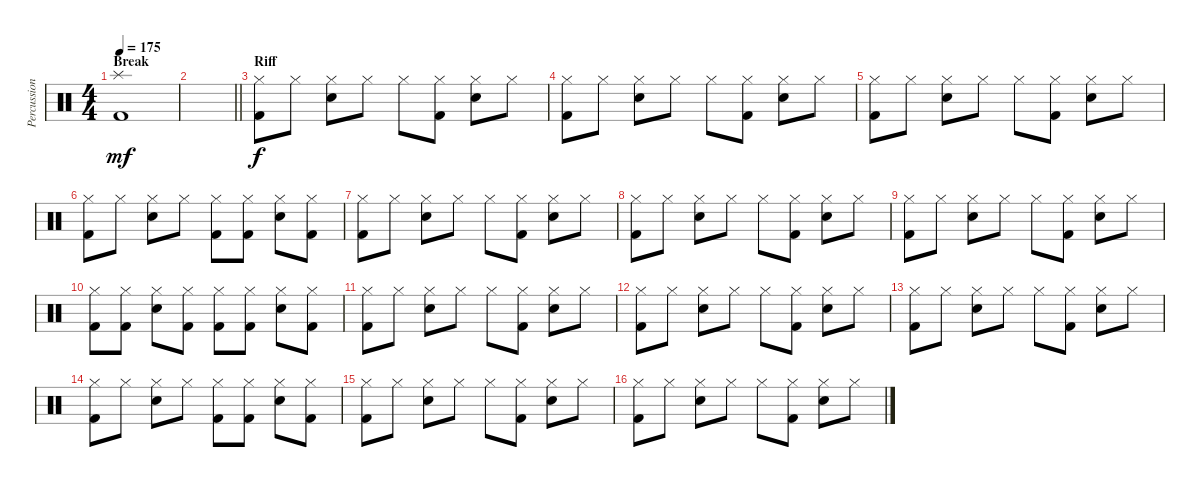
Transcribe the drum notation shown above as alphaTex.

\track ("Percussion" "Percussion") {instrument percussion}
\staff {score}
\articulation defaults
\ts (4 4)
\section ("" "Break")
\tempo 175
\clef neutral
\ks c
("Splash (hit)" "Kick (hit) 2").1{dy mf} |
\barLineRight lightlight
|
\section ("" "Riff")
("Hi-Hat (closed)" "Kick (hit) 2").8{dy f} "Hi-Hat (closed)".8 ("Hi-Hat (closed)" "Snare (hit) 2").8 "Hi-Hat (closed)".8 "Hi-Hat (closed)".8 ("Hi-Hat (closed)" "Kick (hit) 2").8 ("Hi-Hat (closed)" "Snare (hit) 2").8 "Hi-Hat (closed)".8 |
("Hi-Hat (closed)" "Kick (hit) 2").8 "Hi-Hat (closed)".8 ("Hi-Hat (closed)" "Snare (hit) 2").8 "Hi-Hat (closed)".8 "Hi-Hat (closed)".8 ("Hi-Hat (closed)" "Kick (hit) 2").8 ("Hi-Hat (closed)" "Snare (hit) 2").8 "Hi-Hat (closed)".8 |
("Hi-Hat (closed)" "Kick (hit) 2").8 "Hi-Hat (closed)".8 ("Hi-Hat (closed)" "Snare (hit) 2").8 "Hi-Hat (closed)".8 "Hi-Hat (closed)".8 ("Hi-Hat (closed)" "Kick (hit) 2").8 ("Hi-Hat (closed)" "Snare (hit) 2").8 "Hi-Hat (closed)".8 |
("Hi-Hat (closed)" "Kick (hit) 2").8 "Hi-Hat (closed)".8 ("Hi-Hat (closed)" "Snare (hit) 2").8 "Hi-Hat (closed)".8 ("Hi-Hat (closed)" "Kick (hit) 2").8 ("Hi-Hat (closed)" "Kick (hit) 2").8 ("Hi-Hat (closed)" "Snare (hit) 2").8 ("Hi-Hat (closed)" "Kick (hit) 2").8 |
("Hi-Hat (closed)" "Kick (hit) 2").8 "Hi-Hat (closed)".8 ("Hi-Hat (closed)" "Snare (hit) 2").8 "Hi-Hat (closed)".8 "Hi-Hat (closed)".8 ("Hi-Hat (closed)" "Kick (hit) 2").8 ("Hi-Hat (closed)" "Snare (hit) 2").8 "Hi-Hat (closed)".8 |
("Hi-Hat (closed)" "Kick (hit) 2").8 "Hi-Hat (closed)".8 ("Hi-Hat (closed)" "Snare (hit) 2").8 "Hi-Hat (closed)".8 "Hi-Hat (closed)".8 ("Hi-Hat (closed)" "Kick (hit) 2").8 ("Hi-Hat (closed)" "Snare (hit) 2").8 "Hi-Hat (closed)".8 |
("Hi-Hat (closed)" "Kick (hit) 2").8 "Hi-Hat (closed)".8 ("Hi-Hat (closed)" "Snare (hit) 2").8 "Hi-Hat (closed)".8 "Hi-Hat (closed)".8 ("Hi-Hat (closed)" "Kick (hit) 2").8 ("Hi-Hat (closed)" "Snare (hit) 2").8 "Hi-Hat (closed)".8 |
("Hi-Hat (closed)" "Kick (hit) 2").8 ("Hi-Hat (closed)" "Kick (hit) 2").8 ("Hi-Hat (closed)" "Snare (hit) 2").8 ("Hi-Hat (closed)" "Kick (hit) 2").8 ("Hi-Hat (closed)" "Kick (hit) 2").8 ("Hi-Hat (closed)" "Kick (hit) 2").8 ("Hi-Hat (closed)" "Snare (hit) 2").8 ("Hi-Hat (closed)" "Kick (hit) 2").8 |
("Hi-Hat (closed)" "Kick (hit) 2").8 "Hi-Hat (closed)".8 ("Hi-Hat (closed)" "Snare (hit) 2").8 "Hi-Hat (closed)".8 "Hi-Hat (closed)".8 ("Hi-Hat (closed)" "Kick (hit) 2").8 ("Hi-Hat (closed)" "Snare (hit) 2").8 "Hi-Hat (closed)".8 |
("Hi-Hat (closed)" "Kick (hit) 2").8 "Hi-Hat (closed)".8 ("Hi-Hat (closed)" "Snare (hit) 2").8 "Hi-Hat (closed)".8 "Hi-Hat (closed)".8 ("Hi-Hat (closed)" "Kick (hit) 2").8 ("Hi-Hat (closed)" "Snare (hit) 2").8 "Hi-Hat (closed)".8 |
("Hi-Hat (closed)" "Kick (hit) 2").8 "Hi-Hat (closed)".8 ("Hi-Hat (closed)" "Snare (hit) 2").8 "Hi-Hat (closed)".8 "Hi-Hat (closed)".8 ("Hi-Hat (closed)" "Kick (hit) 2").8 ("Hi-Hat (closed)" "Snare (hit) 2").8 "Hi-Hat (closed)".8 |
("Hi-Hat (closed)" "Kick (hit) 2").8 "Hi-Hat (closed)".8 ("Hi-Hat (closed)" "Snare (hit) 2").8 "Hi-Hat (closed)".8 ("Hi-Hat (closed)" "Kick (hit) 2").8 ("Hi-Hat (closed)" "Kick (hit) 2").8 ("Hi-Hat (closed)" "Snare (hit) 2").8 ("Hi-Hat (closed)" "Kick (hit) 2").8 |
("Hi-Hat (closed)" "Kick (hit) 2").8 "Hi-Hat (closed)".8 ("Hi-Hat (closed)" "Snare (hit) 2").8 "Hi-Hat (closed)".8 "Hi-Hat (closed)".8 ("Hi-Hat (closed)" "Kick (hit) 2").8 ("Hi-Hat (closed)" "Snare (hit) 2").8 "Hi-Hat (closed)".8 |
("Hi-Hat (closed)" "Kick (hit) 2").8 "Hi-Hat (closed)".8 ("Hi-Hat (closed)" "Snare (hit) 2").8 "Hi-Hat (closed)".8 "Hi-Hat (closed)".8 ("Hi-Hat (closed)" "Kick (hit) 2").8 ("Hi-Hat (closed)" "Snare (hit) 2").8 "Hi-Hat (closed)".8
